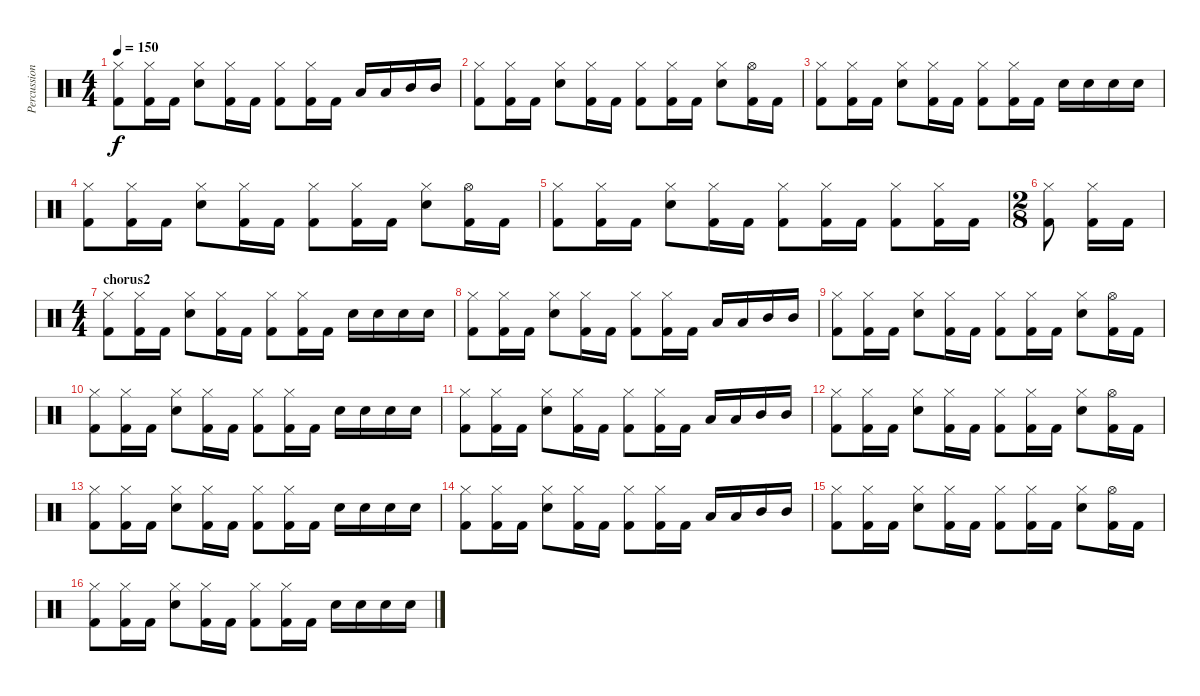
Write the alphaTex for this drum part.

\track ("Percussions" "Percussion") {instrument percussion}
\staff {score}
\articulation defaults
\ts (4 4)
\tempo 150
\clef neutral
\ks c
("Hi-Hat (closed)" "Kick (hit) 2").8{dy f} ("Hi-Hat (closed)" "Kick (hit) 2").16 "Kick (hit) 2".16 ("Hi-Hat (closed)" "Snare (hit) 2").8 ("Hi-Hat (closed)" "Kick (hit) 2").16 "Kick (hit) 2".16 ("Hi-Hat (closed)" "Kick (hit) 2").8 ("Hi-Hat (closed)" "Kick (hit) 2").16 "Kick (hit) 2".16 "Low Tom (hit)".16 "Low Tom (hit)".16 "Mid Tom (hit)".16 "Mid Tom (hit)".16 |
("Hi-Hat (closed)" "Kick (hit) 2").8 ("Hi-Hat (closed)" "Kick (hit) 2").16 "Kick (hit) 2".16 ("Hi-Hat (closed)" "Snare (hit) 2").8 ("Hi-Hat (closed)" "Kick (hit) 2").16 "Kick (hit) 2".16 ("Hi-Hat (closed)" "Kick (hit) 2").8 ("Hi-Hat (closed)" "Kick (hit) 2").16 "Kick (hit) 2".16 ("Hi-Hat (closed)" "Snare (hit) 2").8 ("Hi-Hat (open)" "Kick (hit) 2").16 "Kick (hit) 2".16 |
("Hi-Hat (closed)" "Kick (hit) 2").8 ("Hi-Hat (closed)" "Kick (hit) 2").16 "Kick (hit) 2".16 ("Hi-Hat (closed)" "Snare (hit) 2").8 ("Hi-Hat (closed)" "Kick (hit) 2").16 "Kick (hit) 2".16 ("Hi-Hat (closed)" "Kick (hit) 2").8 ("Hi-Hat (closed)" "Kick (hit) 2").16 "Kick (hit) 2".16 "Snare (hit) 2".16 "Snare (hit) 2".16 "Snare (hit) 2".16 "Snare (hit) 2".16 |
("Hi-Hat (closed)" "Kick (hit) 2").8 ("Hi-Hat (closed)" "Kick (hit) 2").16 "Kick (hit) 2".16 ("Hi-Hat (closed)" "Snare (hit) 2").8 ("Hi-Hat (closed)" "Kick (hit) 2").16 "Kick (hit) 2".16 ("Hi-Hat (closed)" "Kick (hit) 2").8 ("Hi-Hat (closed)" "Kick (hit) 2").16 "Kick (hit) 2".16 ("Hi-Hat (closed)" "Snare (hit) 2").8 ("Hi-Hat (open)" "Kick (hit) 2").16 "Kick (hit) 2".16 |
("Hi-Hat (closed)" "Kick (hit) 2").8 ("Hi-Hat (closed)" "Kick (hit) 2").16 "Kick (hit) 2".16 ("Hi-Hat (closed)" "Snare (hit) 2").8 ("Hi-Hat (closed)" "Kick (hit) 2").16 "Kick (hit) 2".16 ("Hi-Hat (closed)" "Kick (hit) 2").8 ("Hi-Hat (closed)" "Kick (hit) 2").16 "Kick (hit) 2".16 ("Hi-Hat (closed)" "Kick (hit) 2").8 ("Hi-Hat (closed)" "Kick (hit) 2").16 "Kick (hit) 2".16 |
\ts (2 8)
("Hi-Hat (closed)" "Kick (hit) 2").8 ("Hi-Hat (closed)" "Kick (hit) 2").16 "Kick (hit) 2".16 |
\ts (4 4)
\section ("" "chorus2")
("Hi-Hat (closed)" "Kick (hit) 2").8 ("Hi-Hat (closed)" "Kick (hit) 2").16 "Kick (hit) 2".16 ("Hi-Hat (closed)" "Snare (hit) 2").8 ("Hi-Hat (closed)" "Kick (hit) 2").16 "Kick (hit) 2".16 ("Hi-Hat (closed)" "Kick (hit) 2").8 ("Hi-Hat (closed)" "Kick (hit) 2").16 "Kick (hit) 2".16 "Snare (hit) 2".16 "Snare (hit) 2".16 "Snare (hit) 2".16 "Snare (hit) 2".16 |
("Hi-Hat (closed)" "Kick (hit) 2").8 ("Hi-Hat (closed)" "Kick (hit) 2").16 "Kick (hit) 2".16 ("Hi-Hat (closed)" "Snare (hit) 2").8 ("Hi-Hat (closed)" "Kick (hit) 2").16 "Kick (hit) 2".16 ("Hi-Hat (closed)" "Kick (hit) 2").8 ("Hi-Hat (closed)" "Kick (hit) 2").16 "Kick (hit) 2".16 "Low Tom (hit)".16 "Low Tom (hit)".16 "Mid Tom (hit)".16 "Mid Tom (hit)".16 |
("Hi-Hat (closed)" "Kick (hit) 2").8 ("Hi-Hat (closed)" "Kick (hit) 2").16 "Kick (hit) 2".16 ("Hi-Hat (closed)" "Snare (hit) 2").8 ("Hi-Hat (closed)" "Kick (hit) 2").16 "Kick (hit) 2".16 ("Hi-Hat (closed)" "Kick (hit) 2").8 ("Hi-Hat (closed)" "Kick (hit) 2").16 "Kick (hit) 2".16 ("Hi-Hat (closed)" "Snare (hit) 2").8 ("Hi-Hat (open)" "Kick (hit) 2").16 "Kick (hit) 2".16 |
("Hi-Hat (closed)" "Kick (hit) 2").8 ("Hi-Hat (closed)" "Kick (hit) 2").16 "Kick (hit) 2".16 ("Hi-Hat (closed)" "Snare (hit) 2").8 ("Hi-Hat (closed)" "Kick (hit) 2").16 "Kick (hit) 2".16 ("Hi-Hat (closed)" "Kick (hit) 2").8 ("Hi-Hat (closed)" "Kick (hit) 2").16 "Kick (hit) 2".16 "Snare (hit) 2".16 "Snare (hit) 2".16 "Snare (hit) 2".16 "Snare (hit) 2".16 |
("Hi-Hat (closed)" "Kick (hit) 2").8 ("Hi-Hat (closed)" "Kick (hit) 2").16 "Kick (hit) 2".16 ("Hi-Hat (closed)" "Snare (hit) 2").8 ("Hi-Hat (closed)" "Kick (hit) 2").16 "Kick (hit) 2".16 ("Hi-Hat (closed)" "Kick (hit) 2").8 ("Hi-Hat (closed)" "Kick (hit) 2").16 "Kick (hit) 2".16 "Low Tom (hit)".16 "Low Tom (hit)".16 "Mid Tom (hit)".16 "Mid Tom (hit)".16 |
("Hi-Hat (closed)" "Kick (hit) 2").8 ("Hi-Hat (closed)" "Kick (hit) 2").16 "Kick (hit) 2".16 ("Hi-Hat (closed)" "Snare (hit) 2").8 ("Hi-Hat (closed)" "Kick (hit) 2").16 "Kick (hit) 2".16 ("Hi-Hat (closed)" "Kick (hit) 2").8 ("Hi-Hat (closed)" "Kick (hit) 2").16 "Kick (hit) 2".16 ("Hi-Hat (closed)" "Snare (hit) 2").8 ("Hi-Hat (open)" "Kick (hit) 2").16 "Kick (hit) 2".16 |
("Hi-Hat (closed)" "Kick (hit) 2").8 ("Hi-Hat (closed)" "Kick (hit) 2").16 "Kick (hit) 2".16 ("Hi-Hat (closed)" "Snare (hit) 2").8 ("Hi-Hat (closed)" "Kick (hit) 2").16 "Kick (hit) 2".16 ("Hi-Hat (closed)" "Kick (hit) 2").8 ("Hi-Hat (closed)" "Kick (hit) 2").16 "Kick (hit) 2".16 "Snare (hit) 2".16 "Snare (hit) 2".16 "Snare (hit) 2".16 "Snare (hit) 2".16 |
("Hi-Hat (closed)" "Kick (hit) 2").8 ("Hi-Hat (closed)" "Kick (hit) 2").16 "Kick (hit) 2".16 ("Hi-Hat (closed)" "Snare (hit) 2").8 ("Hi-Hat (closed)" "Kick (hit) 2").16 "Kick (hit) 2".16 ("Hi-Hat (closed)" "Kick (hit) 2").8 ("Hi-Hat (closed)" "Kick (hit) 2").16 "Kick (hit) 2".16 "Low Tom (hit)".16 "Low Tom (hit)".16 "Mid Tom (hit)".16 "Mid Tom (hit)".16 |
("Hi-Hat (closed)" "Kick (hit) 2").8 ("Hi-Hat (closed)" "Kick (hit) 2").16 "Kick (hit) 2".16 ("Hi-Hat (closed)" "Snare (hit) 2").8 ("Hi-Hat (closed)" "Kick (hit) 2").16 "Kick (hit) 2".16 ("Hi-Hat (closed)" "Kick (hit) 2").8 ("Hi-Hat (closed)" "Kick (hit) 2").16 "Kick (hit) 2".16 ("Hi-Hat (closed)" "Snare (hit) 2").8 ("Hi-Hat (open)" "Kick (hit) 2").16 "Kick (hit) 2".16 |
("Hi-Hat (closed)" "Kick (hit) 2").8 ("Hi-Hat (closed)" "Kick (hit) 2").16 "Kick (hit) 2".16 ("Hi-Hat (closed)" "Snare (hit) 2").8 ("Hi-Hat (closed)" "Kick (hit) 2").16 "Kick (hit) 2".16 ("Hi-Hat (closed)" "Kick (hit) 2").8 ("Hi-Hat (closed)" "Kick (hit) 2").16 "Kick (hit) 2".16 "Snare (hit) 2".16 "Snare (hit) 2".16 "Snare (hit) 2".16 "Snare (hit) 2".16
